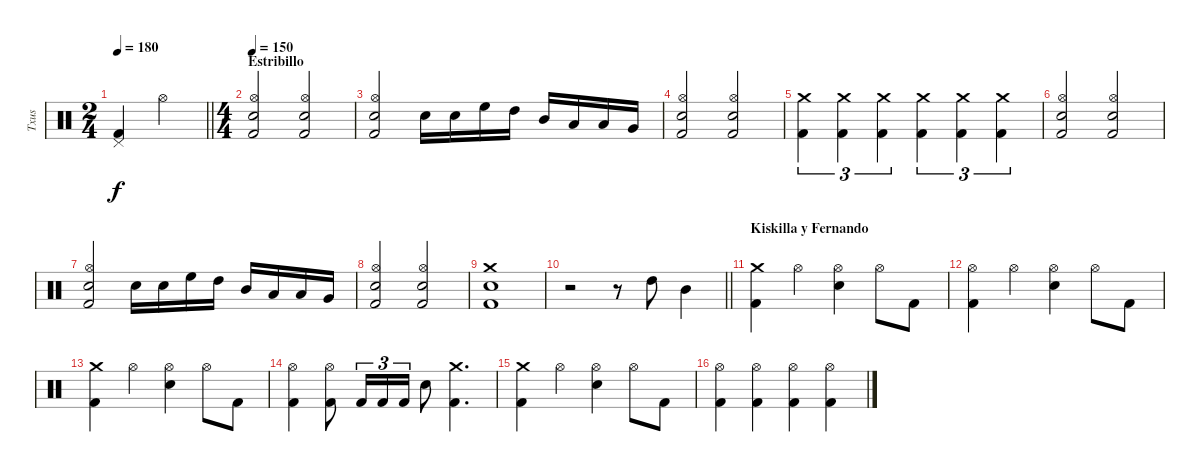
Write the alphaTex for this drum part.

\track ("Txus" "Txus") {instrument percussion}
\staff {score}
\articulation defaults
\ts (2 4)
\tempo 180
\clef neutral
\barLineRight lightlight
\ks c
("Pedal Hi-Hat (hit)" "Kick (hit) 2").4{dy f} "Hi-Hat (open)".4 |
\ts (4 4)
\section ("" "Estribillo")
\tempo 150
("Hi-Hat (open)" "Electric Snare (hit)" "Kick (hit) 2").2 ("Hi-Hat (open)" "Electric Snare (hit)" "Kick (hit) 2").2 |
("Hi-Hat (open)" "Electric Snare (hit)" "Kick (hit) 2").2 "Electric Snare (hit)".16 "Electric Snare (hit)".16 "High Floor Tom (hit)".16 "High Tom (hit)".16 "Mid Tom (hit)".16 "Low Tom (hit)".16 "Low Tom (hit)".16 "Very Low Tom (hit)".16 |
("Hi-Hat (open)" "Electric Snare (hit)" "Kick (hit) 2").2 ("Hi-Hat (open)" "Electric Snare (hit)" "Kick (hit) 2").2 |
("Crash medium (hit)" "Kick (hit) 2").4{tu (3 2)} ("Crash medium (hit)" "Kick (hit) 2").4{tu (3 2)} ("Crash medium (hit)" "Kick (hit) 2").4{tu (3 2)} ("Crash medium (hit)" "Kick (hit) 2").4{tu (3 2)} ("Crash medium (hit)" "Kick (hit) 2").4{tu (3 2)} ("Crash medium (hit)" "Kick (hit) 2").4{tu (3 2)} |
("Hi-Hat (open)" "Electric Snare (hit)" "Kick (hit) 2").2 ("Hi-Hat (open)" "Electric Snare (hit)" "Kick (hit) 2").2 |
("Hi-Hat (open)" "Electric Snare (hit)" "Kick (hit) 2").2 "Electric Snare (hit)".16 "Electric Snare (hit)".16 "High Floor Tom (hit)".16 "High Tom (hit)".16 "Mid Tom (hit)".16 "Low Tom (hit)".16 "Low Tom (hit)".16 "Very Low Tom (hit)".16 |
("Hi-Hat (open)" "Electric Snare (hit)" "Kick (hit) 2").2 ("Hi-Hat (open)" "Electric Snare (hit)" "Kick (hit) 2").2 |
("Crash medium (hit)" "Electric Snare (hit)" "Kick (hit) 2").1 |
\barLineRight lightlight
r.2 r.8 "High Tom (hit)".8 "Mid Tom (hit)".4 |
\section ("" "Kiskilla y Fernando")
("Crash medium (hit)" "Kick (hit) 2").4 "Hi-Hat (open)".4 ("Hi-Hat (open)" "Electric Snare (hit)").4 "Hi-Hat (open)".8 "Kick (hit) 2".8 |
("Hi-Hat (open)" "Kick (hit) 2").4 "Hi-Hat (open)".4 ("Hi-Hat (open)" "Electric Snare (hit)").4 "Hi-Hat (open)".8 "Kick (hit) 2".8 |
("Crash medium (hit)" "Kick (hit) 2").4 "Hi-Hat (open)".4 ("Hi-Hat (open)" "Electric Snare (hit)").4 "Hi-Hat (open)".8 "Kick (hit) 2".8 |
("Hi-Hat (open)" "Kick (hit) 2").4 ("Hi-Hat (open)" "Kick (hit) 2").8 "Kick (hit) 2".16{tu (3 2)} "Kick (hit) 2".16{tu (3 2)} "Kick (hit) 2".16{tu (3 2)} "Electric Snare (hit)".8 ("Crash medium (hit)" "Kick (hit) 2").4{d} |
("Crash medium (hit)" "Kick (hit) 2").4 "Hi-Hat (open)".4 ("Hi-Hat (open)" "Electric Snare (hit)").4 "Hi-Hat (open)".8 "Kick (hit) 2".8 |
("Hi-Hat (open)" "Kick (hit) 2").4 ("Hi-Hat (open)" "Kick (hit) 2").4 ("Hi-Hat (open)" "Kick (hit) 2").4 ("Hi-Hat (open)" "Kick (hit) 2").4
